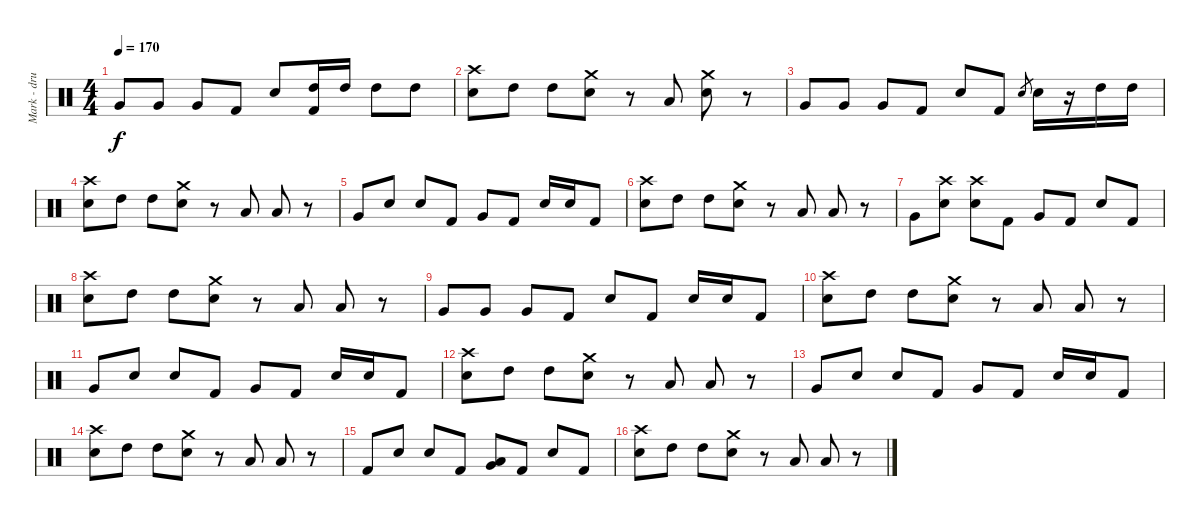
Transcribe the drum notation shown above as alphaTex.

\track ("Mark - drums" "Mark - dru") {instrument percussion}
\staff {score}
\articulation defaults
\ts (4 4)
\tempo 170
\clef neutral
\ks c "Very Low Tom (hit)".8{dy f} "Very Low Tom (hit)".8 "Very Low Tom (hit)".8 "Kick (hit) 2".8 "Electric Snare (hit)".8
("Kick (hit) 2" "High Tom (hit)").16 "High Tom (hit)".16 "High Tom (hit)".8 "High Tom (hit)".8 |
("Electric Snare (hit)" "Crash high (hit)").8 "High Tom (hit)".8 "High Tom (hit)".8 ("Electric Snare (hit)" "Crash medium (hit)").8 r.8 "Low Tom (hit)".8 ("Electric Snare (hit)" "Crash medium (hit)").8 r.8 |
"Very Low Tom (hit)".8 "Very Low Tom (hit)".8 "Very Low Tom (hit)".8 "Kick (hit) 2".8 "Electric Snare (hit)".8 "Kick (hit) 2".8 "Electric Snare (hit)".8{gr} "Electric Snare (hit)".16 r.16 "High Tom (hit)".16 "High Tom (hit)".16 |
("Electric Snare (hit)" "Crash high (hit)").8 "High Tom (hit)".8 "High Tom (hit)".8 ("Electric Snare (hit)" "Crash medium (hit)").8 r.8 "Low Tom (hit)".8 "Low Tom (hit)".8 r.8 |
"Very Low Tom (hit)".8 "Electric Snare (hit)".8 "Electric Snare (hit)".8 "Kick (hit) 2".8 "Very Low Tom (hit)".8 "Kick (hit) 2".8 "Electric Snare (hit)".16 "Electric Snare (hit)".16 "Kick (hit) 2".8 |
("Electric Snare (hit)" "Crash high (hit)").8 "High Tom (hit)".8 "High Tom (hit)".8 ("Electric Snare (hit)" "Crash medium (hit)").8 r.8 "Low Tom (hit)".8 "Low Tom (hit)".8 r.8 |
"Very Low Tom (hit)".8 ("Electric Snare (hit)" "Crash high (hit)").8 ("Electric Snare (hit)" "Crash high (hit)").8 "Kick (hit) 2".8 "Very Low Tom (hit)".8 "Kick (hit) 2".8 "Electric Snare (hit)".8 "Kick (hit) 2".8 |
("Electric Snare (hit)" "Crash high (hit)").8 "High Tom (hit)".8 "High Tom (hit)".8 ("Electric Snare (hit)" "Crash medium (hit)").8 r.8 "Low Tom (hit)".8 "Low Tom (hit)".8 r.8 |
"Very Low Tom (hit)".8 "Very Low Tom (hit)".8 "Very Low Tom (hit)".8 "Kick (hit) 2".8 "Electric Snare (hit)".8 "Kick (hit) 2".8 "Electric Snare (hit)".16 "Electric Snare (hit)".16 "Kick (hit) 2".8 |
("Electric Snare (hit)" "Crash high (hit)").8 "High Tom (hit)".8 "High Tom (hit)".8 ("Electric Snare (hit)" "Crash medium (hit)").8 r.8 "Low Tom (hit)".8 "Low Tom (hit)".8 r.8 |
"Very Low Tom (hit)".8 "Electric Snare (hit)".8 "Electric Snare (hit)".8 "Kick (hit) 2".8 "Very Low Tom (hit)".8 "Kick (hit) 2".8 "Electric Snare (hit)".16 "Electric Snare (hit)".16 "Kick (hit) 2".8 |
("Electric Snare (hit)" "Crash high (hit)").8 "High Tom (hit)".8 "High Tom (hit)".8 ("Electric Snare (hit)" "Crash medium (hit)").8 r.8 "Low Tom (hit)".8 "Low Tom (hit)".8 r.8 |
"Very Low Tom (hit)".8 "Electric Snare (hit)".8 "Electric Snare (hit)".8 "Kick (hit) 2".8 "Very Low Tom (hit)".8 "Kick (hit) 2".8 "Electric Snare (hit)".16 "Electric Snare (hit)".16 "Kick (hit) 2".8 |
("Electric Snare (hit)" "Crash high (hit)").8 "High Tom (hit)".8 "High Tom (hit)".8 ("Electric Snare (hit)" "Crash medium (hit)").8 r.8 "Low Tom (hit)".8 "Low Tom (hit)".8 r.8 |
"Kick (hit) 2".8 "Electric Snare (hit)".8 "Electric Snare (hit)".8 "Kick (hit) 2".8 ("Very Low Tom (hit)" "Low Tom (hit)").8 "Kick (hit) 2".8 "Electric Snare (hit)".8 "Kick (hit) 2".8 |
("Electric Snare (hit)" "Crash high (hit)").8 "High Tom (hit)".8 "High Tom (hit)".8 ("Electric Snare (hit)" "Crash medium (hit)").8 r.8 "Low Tom (hit)".8 "Low Tom (hit)".8 r.8
